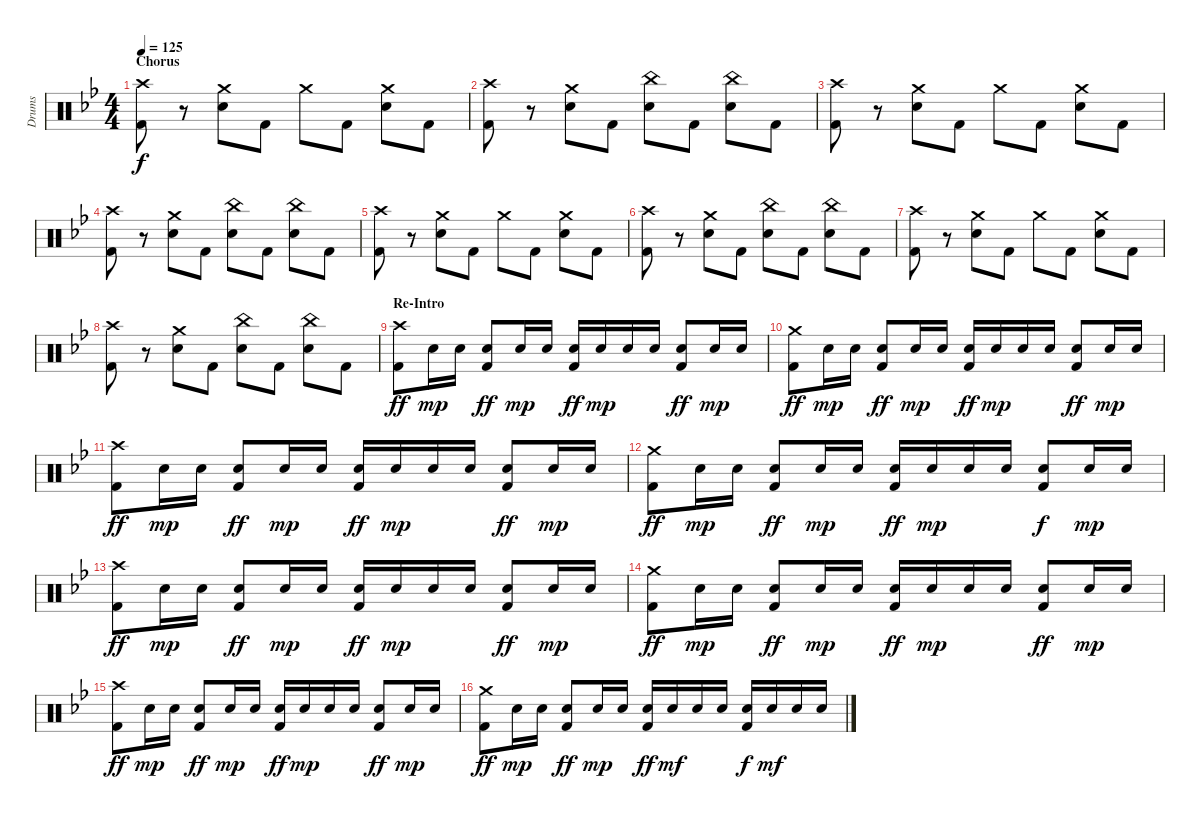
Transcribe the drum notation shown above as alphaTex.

\track ("Drums" "Drums") {instrument percussion}
\staff {score}
\articulation defaults
\ts (4 4)
\section ("" "Chorus")
\tempo 125
\clef neutral
\ks gminor
("Crash high (hit)" "Kick (hit) 2").8{dy f} r.8 ("Crash medium (hit)" "Snare (hit) 2").8 "Kick (hit) 2".8 "Crash medium (hit)".8 "Kick (hit) 2".8 ("Crash medium (hit)" "Snare (hit) 2").8 "Kick (hit) 2".8 |
("Crash high (hit)" "Kick (hit) 2").8 r.8 ("Crash medium (hit)" "Snare (hit) 2").8 "Kick (hit) 2".8 ("China (hit)" "Snare (hit) 2").8 "Kick (hit) 2".8 ("China (hit)" "Snare (hit) 2").8 "Kick (hit) 2".8 |
("Crash high (hit)" "Kick (hit) 2").8 r.8 ("Crash medium (hit)" "Snare (hit) 2").8 "Kick (hit) 2".8 "Crash medium (hit)".8 "Kick (hit) 2".8 ("Crash medium (hit)" "Snare (hit) 2").8 "Kick (hit) 2".8 |
("Crash high (hit)" "Kick (hit) 2").8 r.8 ("Crash medium (hit)" "Snare (hit) 2").8 "Kick (hit) 2".8 ("China (hit)" "Snare (hit) 2").8 "Kick (hit) 2".8 ("China (hit)" "Snare (hit) 2").8 "Kick (hit) 2".8 |
("Crash high (hit)" "Kick (hit) 2").8 r.8 ("Crash medium (hit)" "Snare (hit) 2").8 "Kick (hit) 2".8 "Crash medium (hit)".8 "Kick (hit) 2".8 ("Crash medium (hit)" "Snare (hit) 2").8 "Kick (hit) 2".8 |
("Crash high (hit)" "Kick (hit) 2").8 r.8 ("Crash medium (hit)" "Snare (hit) 2").8 "Kick (hit) 2".8 ("China (hit)" "Snare (hit) 2").8 "Kick (hit) 2".8 ("China (hit)" "Snare (hit) 2").8 "Kick (hit) 2".8 |
("Crash high (hit)" "Kick (hit) 2").8 r.8 ("Crash medium (hit)" "Snare (hit) 2").8 "Kick (hit) 2".8 "Crash medium (hit)".8 "Kick (hit) 2".8 ("Crash medium (hit)" "Snare (hit) 2").8 "Kick (hit) 2".8 |
("Crash high (hit)" "Kick (hit) 2").8 r.8 ("Crash medium (hit)" "Snare (hit) 2").8 "Kick (hit) 2".8 ("China (hit)" "Snare (hit) 2").8 "Kick (hit) 2".8 ("China (hit)" "Snare (hit) 2").8 "Kick (hit) 2".8 |
\section ("" "Re-Intro")
("Crash high (hit)" "Kick (hit) 2").8{dy ff} "Snare (hit) 2".16{dy mp} "Snare (hit) 2".16 ("Snare (hit) 2" "Kick (hit) 2").8{dy ff} "Snare (hit) 2".16{dy mp} "Snare (hit) 2".16 ("Snare (hit) 2" "Kick (hit) 2").16{dy ff} "Snare (hit) 2".16{dy mp} "Snare (hit) 2".16 "Snare (hit) 2".16 ("Snare (hit) 2" "Kick (hit) 2").8{dy ff} "Snare (hit) 2".16{dy mp} "Snare (hit) 2".16 |
("Crash medium (hit)" "Kick (hit) 2").8{dy ff} "Snare (hit) 2".16{dy mp} "Snare (hit) 2".16 ("Snare (hit) 2" "Kick (hit) 2").8{dy ff} "Snare (hit) 2".16{dy mp} "Snare (hit) 2".16 ("Snare (hit) 2" "Kick (hit) 2").16{dy ff} "Snare (hit) 2".16{dy mp} "Snare (hit) 2".16 "Snare (hit) 2".16 ("Snare (hit) 2" "Kick (hit) 2").8{dy ff} "Snare (hit) 2".16{dy mp} "Snare (hit) 2".16 |
("Crash high (hit)" "Kick (hit) 2").8{dy ff} "Snare (hit) 2".16{dy mp} "Snare (hit) 2".16 ("Snare (hit) 2" "Kick (hit) 2").8{dy ff} "Snare (hit) 2".16{dy mp} "Snare (hit) 2".16 ("Snare (hit) 2" "Kick (hit) 2").16{dy ff} "Snare (hit) 2".16{dy mp} "Snare (hit) 2".16 "Snare (hit) 2".16 ("Snare (hit) 2" "Kick (hit) 2").8{dy ff} "Snare (hit) 2".16{dy mp} "Snare (hit) 2".16 |
("Crash medium (hit)" "Kick (hit) 2").8{dy ff} "Snare (hit) 2".16{dy mp} "Snare (hit) 2".16 ("Snare (hit) 2" "Kick (hit) 2").8{dy ff} "Snare (hit) 2".16{dy mp} "Snare (hit) 2".16 ("Snare (hit) 2" "Kick (hit) 2").16{dy ff} "Snare (hit) 2".16{dy mp} "Snare (hit) 2".16 "Snare (hit) 2".16 ("Snare (hit) 2" "Kick (hit) 2").8{dy f} "Snare (hit) 2".16{dy mp} "Snare (hit) 2".16 |
("Crash high (hit)" "Kick (hit) 2").8{dy ff} "Snare (hit) 2".16{dy mp} "Snare (hit) 2".16 ("Snare (hit) 2" "Kick (hit) 2").8{dy ff} "Snare (hit) 2".16{dy mp} "Snare (hit) 2".16 ("Snare (hit) 2" "Kick (hit) 2").16{dy ff} "Snare (hit) 2".16{dy mp} "Snare (hit) 2".16 "Snare (hit) 2".16 ("Snare (hit) 2" "Kick (hit) 2").8{dy ff} "Snare (hit) 2".16{dy mp} "Snare (hit) 2".16 |
("Crash medium (hit)" "Kick (hit) 2").8{dy ff} "Snare (hit) 2".16{dy mp} "Snare (hit) 2".16 ("Snare (hit) 2" "Kick (hit) 2").8{dy ff} "Snare (hit) 2".16{dy mp} "Snare (hit) 2".16 ("Snare (hit) 2" "Kick (hit) 2").16{dy ff} "Snare (hit) 2".16{dy mp} "Snare (hit) 2".16 "Snare (hit) 2".16 ("Snare (hit) 2" "Kick (hit) 2").8{dy ff} "Snare (hit) 2".16{dy mp} "Snare (hit) 2".16 |
("Crash high (hit)" "Kick (hit) 2").8{dy ff} "Snare (hit) 2".16{dy mp} "Snare (hit) 2".16 ("Snare (hit) 2" "Kick (hit) 2").8{dy ff} "Snare (hit) 2".16{dy mp} "Snare (hit) 2".16 ("Snare (hit) 2" "Kick (hit) 2").16{dy ff} "Snare (hit) 2".16{dy mp} "Snare (hit) 2".16 "Snare (hit) 2".16 ("Snare (hit) 2" "Kick (hit) 2").8{dy ff} "Snare (hit) 2".16{dy mp} "Snare (hit) 2".16 |
("Crash medium (hit)" "Kick (hit) 2").8{dy ff} "Snare (hit) 2".16{dy mp} "Snare (hit) 2".16 ("Snare (hit) 2" "Kick (hit) 2").8{dy ff} "Snare (hit) 2".16{dy mp} "Snare (hit) 2".16 ("Snare (hit) 2" "Kick (hit) 2").16{dy ff} "Snare (hit) 2".16{dy mf} "Snare (hit) 2".16 "Snare (hit) 2".16 ("Snare (hit) 2" "Kick (hit) 2").16{dy f} "Snare (hit) 2".16{dy mf} "Snare (hit) 2".16 "Snare (hit) 2".16
